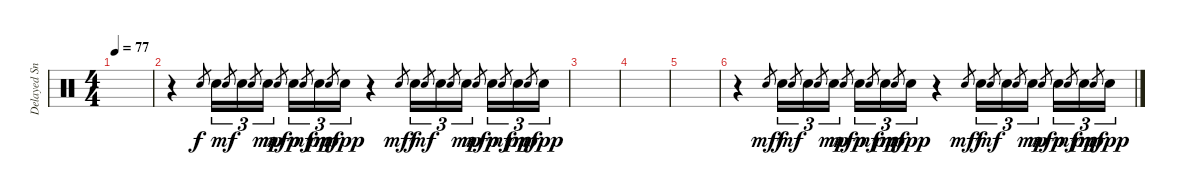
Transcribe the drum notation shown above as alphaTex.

\track ("Delayed Snares" "Delayed Sn") {instrument percussion}
\staff {score}
\articulation defaults
\ts (4 4)
\tempo 77
\clef neutral
\ks c
|
r.4 "Electric Snare (hit)".8{gr} "Electric Snare (hit)".16{tu (3 2) dy f} "Electric Snare (hit)".8{gr dy mf} "Electric Snare (hit)".16{tu (3 2)} "Electric Snare (hit)".8{gr} "Electric Snare (hit)".16{tu (3 2) dy mp} "Electric Snare (hit)".8{gr dy mf} "Electric Snare (hit)".16{tu (3 2) dy p} "Electric Snare (hit)".8{gr dy mf} "Electric Snare (hit)".16{tu (3 2) dy pp} "Electric Snare (hit)".8{gr dy mf} "Electric Snare (hit)".16{tu (3 2) dy ppp} r.4 "Electric Snare (hit)".8{gr dy mf} "Electric Snare (hit)".16{tu (3 2) dy f} "Electric Snare (hit)".8{gr dy mf} "Electric Snare (hit)".16{tu (3 2)} "Electric Snare (hit)".8{gr} "Electric Snare (hit)".16{tu (3 2) dy mp} "Electric Snare (hit)".8{gr dy mf} "Electric Snare (hit)".16{tu (3 2) dy p} "Electric Snare (hit)".8{gr dy mf} "Electric Snare (hit)".16{tu (3 2) dy pp} "Electric Snare (hit)".8{gr dy mf} "Electric Snare (hit)".16{tu (3 2) dy ppp} |
|
|
|
r.4 "Electric Snare (hit)".8{gr dy mf} "Electric Snare (hit)".16{tu (3 2) dy f} "Electric Snare (hit)".8{gr dy mf} "Electric Snare (hit)".16{tu (3 2)} "Electric Snare (hit)".8{gr} "Electric Snare (hit)".16{tu (3 2) dy mp} "Electric Snare (hit)".8{gr dy mf} "Electric Snare (hit)".16{tu (3 2) dy p} "Electric Snare (hit)".8{gr dy mf} "Electric Snare (hit)".16{tu (3 2) dy pp} "Electric Snare (hit)".8{gr dy mf} "Electric Snare (hit)".16{tu (3 2) dy ppp} r.4 "Electric Snare (hit)".8{gr dy mf} "Electric Snare (hit)".16{tu (3 2) dy f} "Electric Snare (hit)".8{gr dy mf} "Electric Snare (hit)".16{tu (3 2)} "Electric Snare (hit)".8{gr} "Electric Snare (hit)".16{tu (3 2) dy mp} "Electric Snare (hit)".8{gr dy mf} "Electric Snare (hit)".16{tu (3 2) dy p} "Electric Snare (hit)".8{gr dy mf} "Electric Snare (hit)".16{tu (3 2) dy pp} "Electric Snare (hit)".8{gr dy mf} "Electric Snare (hit)".16{tu (3 2) dy ppp}
